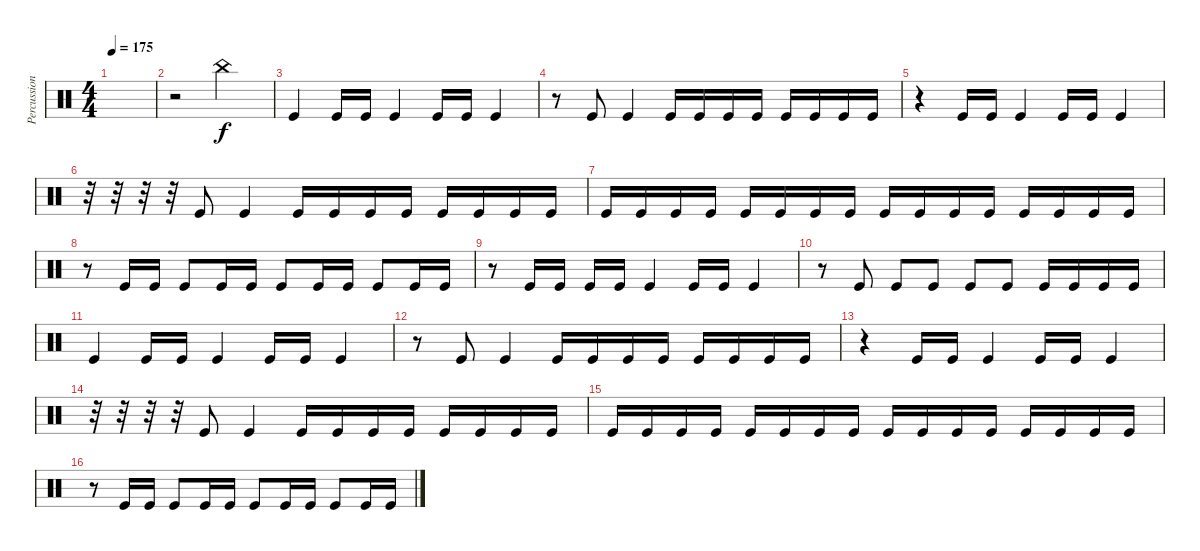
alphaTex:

\track ("Percussion" "Percussion") {instrument percussion}
\staff {score}
\articulation defaults
\ts (4 4)
\tempo 175
\clef neutral
\ks c
|
r.2 "China (hit)".2{dy f} |
"Kick (hit)".4 "Kick (hit)".16 "Kick (hit)".16 "Kick (hit)".4 "Kick (hit)".16 "Kick (hit)".16 "Kick (hit)".4 |
r.8 "Kick (hit)".8 "Kick (hit)".4 "Kick (hit)".16 "Kick (hit)".16 "Kick (hit)".16 "Kick (hit)".16 "Kick (hit)".16 "Kick (hit)".16 "Kick (hit)".16 "Kick (hit)".16 |
r.4 "Kick (hit)".16 "Kick (hit)".16 "Kick (hit)".4 "Kick (hit)".16 "Kick (hit)".16 "Kick (hit)".4 |
r.32 r.32 r.32 r.32 "Kick (hit)".8 "Kick (hit)".4 "Kick (hit)".16 "Kick (hit)".16 "Kick (hit)".16 "Kick (hit)".16 "Kick (hit)".16 "Kick (hit)".16 "Kick (hit)".16 "Kick (hit)".16 |
"Kick (hit)".16 "Kick (hit)".16 "Kick (hit)".16 "Kick (hit)".16 "Kick (hit)".16 "Kick (hit)".16 "Kick (hit)".16 "Kick (hit)".16 "Kick (hit)".16 "Kick (hit)".16 "Kick (hit)".16 "Kick (hit)".16 "Kick (hit)".16 "Kick (hit)".16 "Kick (hit)".16 "Kick (hit)".16 |
r.8 "Kick (hit)".16 "Kick (hit)".16 "Kick (hit)".8 "Kick (hit)".16 "Kick (hit)".16 "Kick (hit)".8 "Kick (hit)".16 "Kick (hit)".16 "Kick (hit)".8 "Kick (hit)".16 "Kick (hit)".16 |
r.8 "Kick (hit)".16 "Kick (hit)".16 "Kick (hit)".16 "Kick (hit)".16 "Kick (hit)".4 "Kick (hit)".16 "Kick (hit)".16 "Kick (hit)".4 |
r.8 "Kick (hit)".8 "Kick (hit)".8 "Kick (hit)".8 "Kick (hit)".8 "Kick (hit)".8 "Kick (hit)".16 "Kick (hit)".16 "Kick (hit)".16 "Kick (hit)".16 |
"Kick (hit)".4 "Kick (hit)".16 "Kick (hit)".16 "Kick (hit)".4 "Kick (hit)".16 "Kick (hit)".16 "Kick (hit)".4 |
r.8 "Kick (hit)".8 "Kick (hit)".4 "Kick (hit)".16 "Kick (hit)".16 "Kick (hit)".16 "Kick (hit)".16 "Kick (hit)".16 "Kick (hit)".16 "Kick (hit)".16 "Kick (hit)".16 |
r.4 "Kick (hit)".16 "Kick (hit)".16 "Kick (hit)".4 "Kick (hit)".16 "Kick (hit)".16 "Kick (hit)".4 |
r.32 r.32 r.32 r.32 "Kick (hit)".8 "Kick (hit)".4 "Kick (hit)".16 "Kick (hit)".16 "Kick (hit)".16 "Kick (hit)".16 "Kick (hit)".16 "Kick (hit)".16 "Kick (hit)".16 "Kick (hit)".16 |
"Kick (hit)".16 "Kick (hit)".16 "Kick (hit)".16 "Kick (hit)".16 "Kick (hit)".16 "Kick (hit)".16 "Kick (hit)".16 "Kick (hit)".16 "Kick (hit)".16 "Kick (hit)".16 "Kick (hit)".16 "Kick (hit)".16 "Kick (hit)".16 "Kick (hit)".16 "Kick (hit)".16 "Kick (hit)".16 |
r.8 "Kick (hit)".16 "Kick (hit)".16 "Kick (hit)".8 "Kick (hit)".16 "Kick (hit)".16 "Kick (hit)".8 "Kick (hit)".16 "Kick (hit)".16 "Kick (hit)".8 "Kick (hit)".16 "Kick (hit)".16
